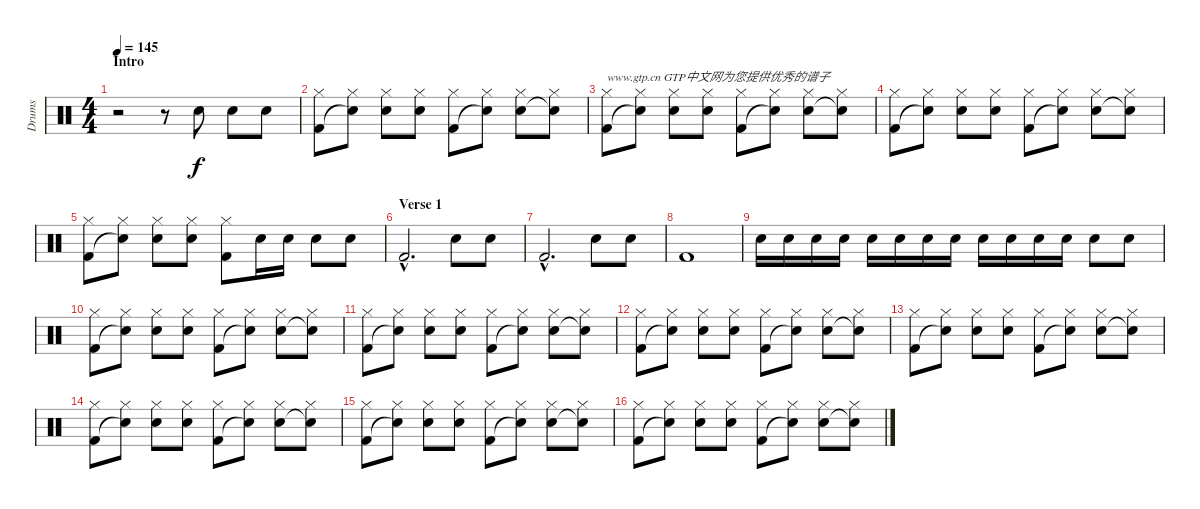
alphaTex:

\track ("Drums" "Drums") {instrument percussion}
\staff {score}
\articulation defaults
\ts (4 4)
\section ("" "Intro")
\tempo 145
\clef neutral
\ks c
r.2{dy f} r.8 "Snare (hit) 2".8 "Snare (hit) 2".8 "Snare (hit) 2".8 |
("Kick (hit) 2" "Hi-Hat (closed)").8 ("Snare (hit)"{t} "Hi-Hat (closed)").8 ("Snare (hit) 2" "Hi-Hat (closed)").8 ("Snare (hit) 2" "Hi-Hat (closed)").8 ("Kick (hit) 2" "Hi-Hat (closed)").8 ("Snare (hit)"{t} "Hi-Hat (closed)").8 ("Snare (hit) 2" "Hi-Hat (closed)").8 ("Snare (hit)"{t} "Hi-Hat (closed)").8 |
("Kick (hit) 2" "Hi-Hat (closed)").8{txt "www.gtp.cn GTP中文网为您提供优秀的谱子"} ("Snare (hit)"{t} "Hi-Hat (closed)").8 ("Snare (hit) 2" "Hi-Hat (closed)").8 ("Snare (hit) 2" "Hi-Hat (closed)").8 ("Kick (hit) 2" "Hi-Hat (closed)").8 ("Snare (hit)"{t} "Hi-Hat (closed)").8 ("Snare (hit) 2" "Hi-Hat (closed)").8 ("Snare (hit)"{t} "Hi-Hat (closed)").8 |
("Kick (hit) 2" "Hi-Hat (closed)").8 ("Snare (hit)"{t} "Hi-Hat (closed)").8 ("Snare (hit) 2" "Hi-Hat (closed)").8 ("Snare (hit) 2" "Hi-Hat (closed)").8 ("Kick (hit) 2" "Hi-Hat (closed)").8 ("Snare (hit)"{t} "Hi-Hat (closed)").8 ("Snare (hit) 2" "Hi-Hat (closed)").8 ("Snare (hit)"{t} "Hi-Hat (closed)").8 |
("Kick (hit) 2" "Hi-Hat (closed)").8 ("Snare (hit)"{t} "Hi-Hat (closed)").8 ("Snare (hit) 2" "Hi-Hat (closed)").8 ("Snare (hit) 2" "Hi-Hat (closed)").8 ("Kick (hit) 2" "Hi-Hat (closed)").8 "Snare (hit) 2".16 "Snare (hit) 2".16 "Snare (hit) 2".8 "Snare (hit) 2".8 |
\section ("" "Verse 1")
"Kick (hit) 2"{hac}.2{d} "Snare (hit) 2".8 "Snare (hit) 2".8 |
"Kick (hit) 2"{hac}.2{d} "Snare (hit) 2".8 "Snare (hit) 2".8 |
"Kick (hit) 2".1 |
"Snare (hit) 2".16 "Snare (hit) 2".16 "Snare (hit) 2".16 "Snare (hit) 2".16 "Snare (hit) 2".16 "Snare (hit) 2".16 "Snare (hit) 2".16 "Snare (hit) 2".16 "Snare (hit) 2".16 "Snare (hit) 2".16 "Snare (hit) 2".16 "Snare (hit) 2".16 "Snare (hit) 2".8 "Snare (hit) 2".8 |
("Kick (hit) 2" "Hi-Hat (closed)").8 ("Snare (hit)"{t} "Hi-Hat (closed)").8 ("Snare (hit) 2" "Hi-Hat (closed)").8 ("Snare (hit) 2" "Hi-Hat (closed)").8 ("Kick (hit) 2" "Hi-Hat (closed)").8 ("Snare (hit)"{t} "Hi-Hat (closed)").8 ("Snare (hit) 2" "Hi-Hat (closed)").8 ("Snare (hit)"{t} "Hi-Hat (closed)").8 |
("Kick (hit) 2" "Hi-Hat (closed)").8 ("Snare (hit)"{t} "Hi-Hat (closed)").8 ("Snare (hit) 2" "Hi-Hat (closed)").8 ("Snare (hit) 2" "Hi-Hat (closed)").8 ("Kick (hit) 2" "Hi-Hat (closed)").8 ("Snare (hit)"{t} "Hi-Hat (closed)").8 ("Snare (hit) 2" "Hi-Hat (closed)").8 ("Snare (hit)"{t} "Hi-Hat (closed)").8 |
("Kick (hit) 2" "Hi-Hat (closed)").8 ("Snare (hit)"{t} "Hi-Hat (closed)").8 ("Snare (hit) 2" "Hi-Hat (closed)").8 ("Snare (hit) 2" "Hi-Hat (closed)").8 ("Kick (hit) 2" "Hi-Hat (closed)").8 ("Snare (hit)"{t} "Hi-Hat (closed)").8 ("Snare (hit) 2" "Hi-Hat (closed)").8 ("Snare (hit)"{t} "Hi-Hat (closed)").8 |
("Kick (hit) 2" "Hi-Hat (closed)").8 ("Snare (hit)"{t} "Hi-Hat (closed)").8 ("Snare (hit) 2" "Hi-Hat (closed)").8 ("Snare (hit) 2" "Hi-Hat (closed)").8 ("Kick (hit) 2" "Hi-Hat (closed)").8 ("Snare (hit)"{t} "Hi-Hat (closed)").8 ("Snare (hit) 2" "Hi-Hat (closed)").8 ("Snare (hit)"{t} "Hi-Hat (closed)").8 |
("Kick (hit) 2" "Hi-Hat (closed)").8 ("Snare (hit)"{t} "Hi-Hat (closed)").8 ("Snare (hit) 2" "Hi-Hat (closed)").8 ("Snare (hit) 2" "Hi-Hat (closed)").8 ("Kick (hit) 2" "Hi-Hat (closed)").8 ("Snare (hit)"{t} "Hi-Hat (closed)").8 ("Snare (hit) 2" "Hi-Hat (closed)").8 ("Snare (hit)"{t} "Hi-Hat (closed)").8 |
("Kick (hit) 2" "Hi-Hat (closed)").8 ("Snare (hit)"{t} "Hi-Hat (closed)").8 ("Snare (hit) 2" "Hi-Hat (closed)").8 ("Snare (hit) 2" "Hi-Hat (closed)").8 ("Kick (hit) 2" "Hi-Hat (closed)").8 ("Snare (hit)"{t} "Hi-Hat (closed)").8 ("Snare (hit) 2" "Hi-Hat (closed)").8 ("Snare (hit)"{t} "Hi-Hat (closed)").8 |
("Kick (hit) 2" "Hi-Hat (closed)").8 ("Snare (hit)"{t} "Hi-Hat (closed)").8 ("Snare (hit) 2" "Hi-Hat (closed)").8 ("Snare (hit) 2" "Hi-Hat (closed)").8 ("Kick (hit) 2" "Hi-Hat (closed)").8 ("Snare (hit)"{t} "Hi-Hat (closed)").8 ("Snare (hit) 2" "Hi-Hat (closed)").8 ("Snare (hit)"{t} "Hi-Hat (closed)").8
